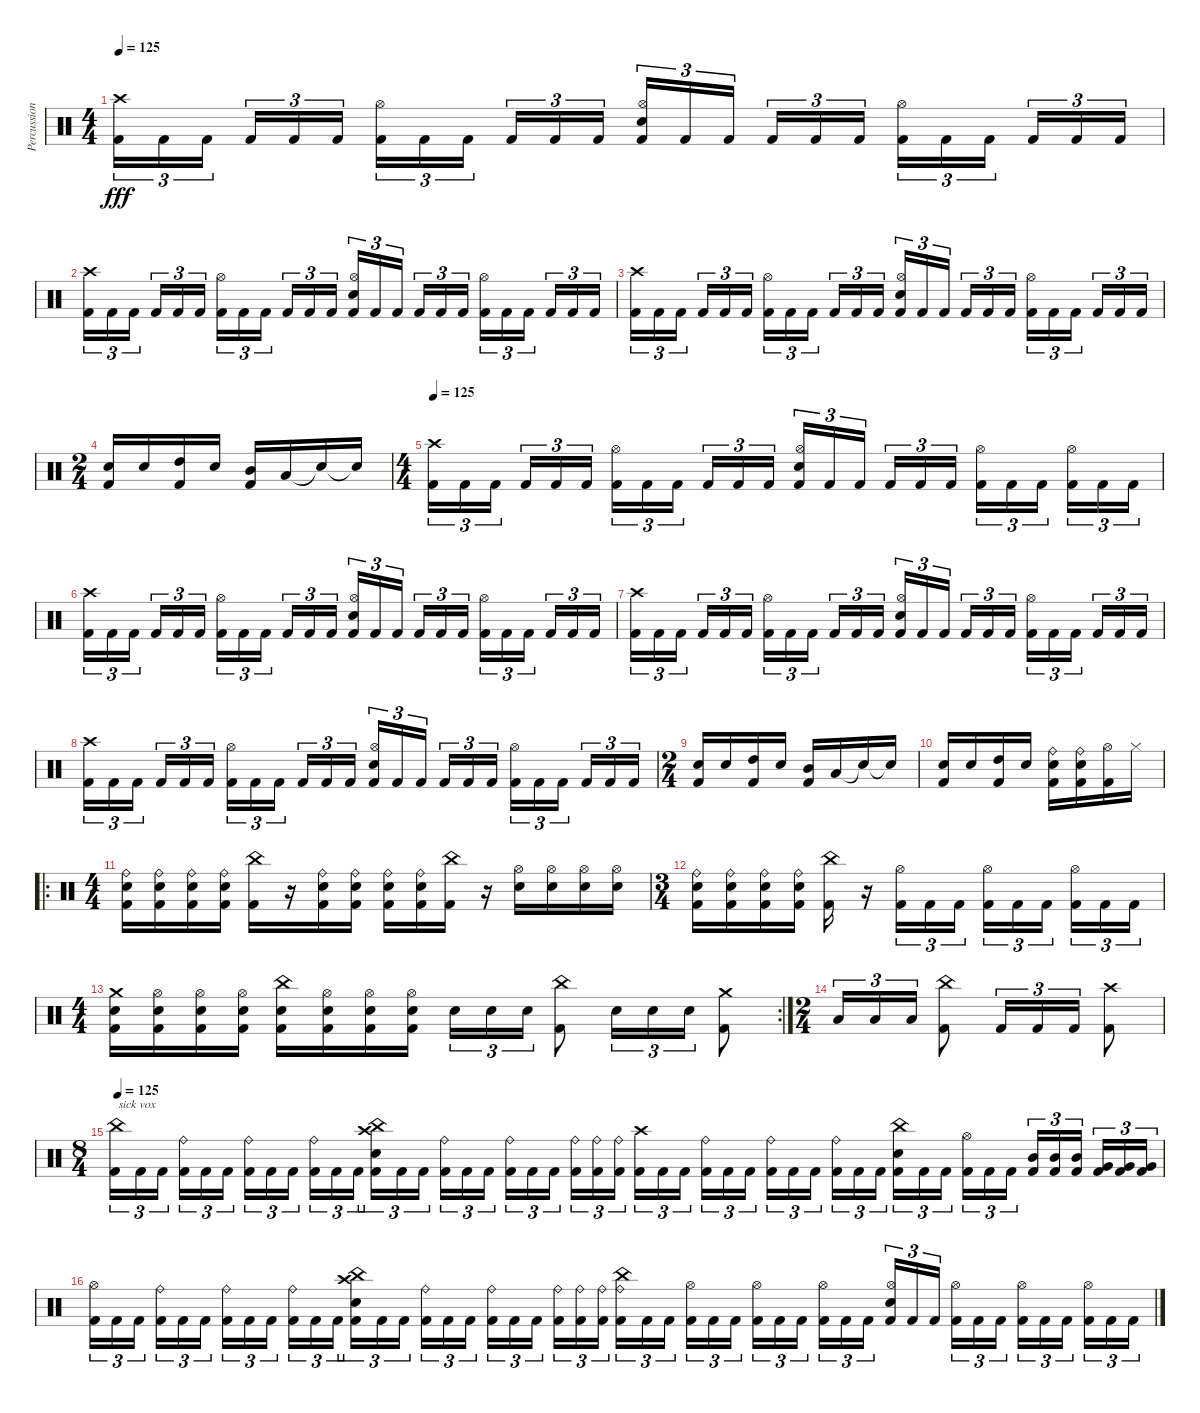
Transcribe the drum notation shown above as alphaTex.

\track ("Percussion" "Percussion") {instrument percussion}
\staff {score}
\articulation defaults
\ts (4 4)
\tempo 125
\clef neutral
\ks c
("Crash high (hit)" "Kick (hit) 2").16{tu (3 2) dy fff} "Kick (hit) 2".16{tu (3 2)} "Kick (hit) 2".16{tu (3 2) beam splitsecondary} "Kick (hit) 2".16{tu (3 2)} "Kick (hit) 2".16{tu (3 2)} "Kick (hit) 2".16{tu (3 2)} ("Hi-Hat (open)" "Kick (hit) 2").16{tu (3 2)} "Kick (hit) 2".16{tu (3 2)} "Kick (hit) 2".16{tu (3 2) beam splitsecondary} "Kick (hit) 2".16{tu (3 2)} "Kick (hit) 2".16{tu (3 2)} "Kick (hit) 2".16{tu (3 2)} ("Electric Snare (hit)" "Hi-Hat (open)" "Kick (hit) 2").16{tu (3 2)} "Kick (hit) 2".16{tu (3 2)} "Kick (hit) 2".16{tu (3 2) beam splitsecondary} "Kick (hit) 2".16{tu (3 2)} "Kick (hit) 2".16{tu (3 2)} "Kick (hit) 2".16{tu (3 2)} ("Hi-Hat (open)" "Kick (hit) 2").16{tu (3 2)} "Kick (hit) 2".16{tu (3 2)} "Kick (hit) 2".16{tu (3 2) beam splitsecondary} "Kick (hit) 2".16{tu (3 2)} "Kick (hit) 2".16{tu (3 2)} "Kick (hit) 2".16{tu (3 2)} |
("Crash high (hit)" "Kick (hit) 2").16{tu (3 2)} "Kick (hit) 2".16{tu (3 2)} "Kick (hit) 2".16{tu (3 2) beam splitsecondary} "Kick (hit) 2".16{tu (3 2)} "Kick (hit) 2".16{tu (3 2)} "Kick (hit) 2".16{tu (3 2)} ("Hi-Hat (open)" "Kick (hit) 2").16{tu (3 2)} "Kick (hit) 2".16{tu (3 2)} "Kick (hit) 2".16{tu (3 2) beam splitsecondary} "Kick (hit) 2".16{tu (3 2)} "Kick (hit) 2".16{tu (3 2)} "Kick (hit) 2".16{tu (3 2)} ("Electric Snare (hit)" "Hi-Hat (open)" "Kick (hit) 2").16{tu (3 2)} "Kick (hit) 2".16{tu (3 2)} "Kick (hit) 2".16{tu (3 2) beam splitsecondary} "Kick (hit) 2".16{tu (3 2)} "Kick (hit) 2".16{tu (3 2)} "Kick (hit) 2".16{tu (3 2)} ("Hi-Hat (open)" "Kick (hit) 2").16{tu (3 2)} "Kick (hit) 2".16{tu (3 2)} "Kick (hit) 2".16{tu (3 2) beam splitsecondary} "Kick (hit) 2".16{tu (3 2)} "Kick (hit) 2".16{tu (3 2)} "Kick (hit) 2".16{tu (3 2)} |
("Crash high (hit)" "Kick (hit) 2").16{tu (3 2)} "Kick (hit) 2".16{tu (3 2)} "Kick (hit) 2".16{tu (3 2) beam splitsecondary} "Kick (hit) 2".16{tu (3 2)} "Kick (hit) 2".16{tu (3 2)} "Kick (hit) 2".16{tu (3 2)} ("Hi-Hat (open)" "Kick (hit) 2").16{tu (3 2)} "Kick (hit) 2".16{tu (3 2)} "Kick (hit) 2".16{tu (3 2) beam splitsecondary} "Kick (hit) 2".16{tu (3 2)} "Kick (hit) 2".16{tu (3 2)} "Kick (hit) 2".16{tu (3 2)} ("Electric Snare (hit)" "Hi-Hat (open)" "Kick (hit) 2").16{tu (3 2)} "Kick (hit) 2".16{tu (3 2)} "Kick (hit) 2".16{tu (3 2) beam splitsecondary} "Kick (hit) 2".16{tu (3 2)} "Kick (hit) 2".16{tu (3 2)} "Kick (hit) 2".16{tu (3 2)} ("Hi-Hat (open)" "Kick (hit) 2").16{tu (3 2)} "Kick (hit) 2".16{tu (3 2)} "Kick (hit) 2".16{tu (3 2) beam splitsecondary} "Kick (hit) 2".16{tu (3 2)} "Kick (hit) 2".16{tu (3 2)} "Kick (hit) 2".16{tu (3 2)} |
\ts (2 4)
("Kick (hit) 2" "Electric Snare (hit)").16 "Electric Snare (hit)".16 ("Kick (hit) 2" "High Tom (hit)").16 "Electric Snare (hit)".16 ("Kick (hit) 2" "Mid Tom (hit)").16 "Low Tom (hit)".16 "Snare (hit)"{t}.16 "Snare (hit)"{t}.16 |
\ts (4 4)
\tempo 125
("Crash high (hit)" "Kick (hit) 2").16{tu (3 2)} "Kick (hit) 2".16{tu (3 2)} "Kick (hit) 2".16{tu (3 2) beam splitsecondary} "Kick (hit) 2".16{tu (3 2)} "Kick (hit) 2".16{tu (3 2)} "Kick (hit) 2".16{tu (3 2)} ("Hi-Hat (open)" "Kick (hit) 2").16{tu (3 2)} "Kick (hit) 2".16{tu (3 2)} "Kick (hit) 2".16{tu (3 2) beam splitsecondary} "Kick (hit) 2".16{tu (3 2)} "Kick (hit) 2".16{tu (3 2)} "Kick (hit) 2".16{tu (3 2)} ("Electric Snare (hit)" "Hi-Hat (open)" "Kick (hit) 2").16{tu (3 2)} "Kick (hit) 2".16{tu (3 2)} "Kick (hit) 2".16{tu (3 2) beam splitsecondary} "Kick (hit) 2".16{tu (3 2)} "Kick (hit) 2".16{tu (3 2)} "Kick (hit) 2".16{tu (3 2)} ("Hi-Hat (open)" "Kick (hit) 2").16{tu (3 2)} "Kick (hit) 2".16{tu (3 2)} "Kick (hit) 2".16{tu (3 2) beam splitsecondary} ("Hi-Hat (open)" "Kick (hit) 2").16{tu (3 2)} "Kick (hit) 2".16{tu (3 2)} "Kick (hit) 2".16{tu (3 2)} |
("Crash high (hit)" "Kick (hit) 2").16{tu (3 2)} "Kick (hit) 2".16{tu (3 2)} "Kick (hit) 2".16{tu (3 2) beam splitsecondary} "Kick (hit) 2".16{tu (3 2)} "Kick (hit) 2".16{tu (3 2)} "Kick (hit) 2".16{tu (3 2)} ("Hi-Hat (open)" "Kick (hit) 2").16{tu (3 2)} "Kick (hit) 2".16{tu (3 2)} "Kick (hit) 2".16{tu (3 2) beam splitsecondary} "Kick (hit) 2".16{tu (3 2)} "Kick (hit) 2".16{tu (3 2)} "Kick (hit) 2".16{tu (3 2)} ("Electric Snare (hit)" "Hi-Hat (open)" "Kick (hit) 2").16{tu (3 2)} "Kick (hit) 2".16{tu (3 2)} "Kick (hit) 2".16{tu (3 2) beam splitsecondary} "Kick (hit) 2".16{tu (3 2)} "Kick (hit) 2".16{tu (3 2)} "Kick (hit) 2".16{tu (3 2)} ("Hi-Hat (open)" "Kick (hit) 2").16{tu (3 2)} "Kick (hit) 2".16{tu (3 2)} "Kick (hit) 2".16{tu (3 2) beam splitsecondary} "Kick (hit) 2".16{tu (3 2)} "Kick (hit) 2".16{tu (3 2)} "Kick (hit) 2".16{tu (3 2)} |
("Crash high (hit)" "Kick (hit) 2").16{tu (3 2)} "Kick (hit) 2".16{tu (3 2)} "Kick (hit) 2".16{tu (3 2) beam splitsecondary} "Kick (hit) 2".16{tu (3 2)} "Kick (hit) 2".16{tu (3 2)} "Kick (hit) 2".16{tu (3 2)} ("Hi-Hat (open)" "Kick (hit) 2").16{tu (3 2)} "Kick (hit) 2".16{tu (3 2)} "Kick (hit) 2".16{tu (3 2) beam splitsecondary} "Kick (hit) 2".16{tu (3 2)} "Kick (hit) 2".16{tu (3 2)} "Kick (hit) 2".16{tu (3 2)} ("Electric Snare (hit)" "Hi-Hat (open)" "Kick (hit) 2").16{tu (3 2)} "Kick (hit) 2".16{tu (3 2)} "Kick (hit) 2".16{tu (3 2) beam splitsecondary} "Kick (hit) 2".16{tu (3 2)} "Kick (hit) 2".16{tu (3 2)} "Kick (hit) 2".16{tu (3 2)} ("Hi-Hat (open)" "Kick (hit) 2").16{tu (3 2)} "Kick (hit) 2".16{tu (3 2)} "Kick (hit) 2".16{tu (3 2) beam splitsecondary} "Kick (hit) 2".16{tu (3 2)} "Kick (hit) 2".16{tu (3 2)} "Kick (hit) 2".16{tu (3 2)} |
("Crash high (hit)" "Kick (hit) 2").16{tu (3 2)} "Kick (hit) 2".16{tu (3 2)} "Kick (hit) 2".16{tu (3 2) beam splitsecondary} "Kick (hit) 2".16{tu (3 2)} "Kick (hit) 2".16{tu (3 2)} "Kick (hit) 2".16{tu (3 2)} ("Hi-Hat (open)" "Kick (hit) 2").16{tu (3 2)} "Kick (hit) 2".16{tu (3 2)} "Kick (hit) 2".16{tu (3 2) beam splitsecondary} "Kick (hit) 2".16{tu (3 2)} "Kick (hit) 2".16{tu (3 2)} "Kick (hit) 2".16{tu (3 2)} ("Electric Snare (hit)" "Hi-Hat (open)" "Kick (hit) 2").16{tu (3 2)} "Kick (hit) 2".16{tu (3 2)} "Kick (hit) 2".16{tu (3 2) beam splitsecondary} "Kick (hit) 2".16{tu (3 2)} "Kick (hit) 2".16{tu (3 2)} "Kick (hit) 2".16{tu (3 2)} ("Hi-Hat (open)" "Kick (hit) 2").16{tu (3 2)} "Kick (hit) 2".16{tu (3 2)} "Kick (hit) 2".16{tu (3 2) beam splitsecondary} "Kick (hit) 2".16{tu (3 2)} "Kick (hit) 2".16{tu (3 2)} "Kick (hit) 2".16{tu (3 2)} |
\ts (2 4)
("Kick (hit) 2" "Electric Snare (hit)").16 "Electric Snare (hit)".16 ("Kick (hit) 2" "High Tom (hit)").16 "Electric Snare (hit)".16 ("Kick (hit) 2" "Mid Tom (hit)").16 "Low Tom (hit)".16 "Snare (hit)"{t}.16 "Snare (hit)"{t}.16 |
("Kick (hit) 2" "Electric Snare (hit)").16 "Electric Snare (hit)".16 ("Kick (hit) 2" "High Tom (hit)").16 "Electric Snare (hit)".16 ("Kick (hit) 2" "Electric Snare (hit)" "Ride (bell)").16 ("Kick (hit) 2" "Electric Snare (hit)" "Ride (bell)").16 ("Hi-Hat (open)" "Kick (hit) 2").16 "Hi-Hat (closed)".16 |
\ro
\ts (4 4)
("Ride (bell)" "Electric Snare (hit)" "Kick (hit) 2").16 ("Ride (bell)" "Electric Snare (hit)" "Kick (hit) 2").16 ("Ride (bell)" "Electric Snare (hit)" "Kick (hit) 2").16 ("Ride (bell)" "Electric Snare (hit)" "Kick (hit) 2").16 ("China (hit)" "Kick (hit) 2").16 r.16 ("Ride (bell)" "Electric Snare (hit)" "Kick (hit) 2").16 ("Ride (bell)" "Electric Snare (hit)" "Kick (hit) 2").16 ("Ride (bell)" "Electric Snare (hit)" "Kick (hit) 2").16 ("Ride (bell)" "Electric Snare (hit)" "Kick (hit) 2").16 ("China (hit)" "Kick (hit) 2").16 r.16 ("Hi-Hat (open)" "Electric Snare (hit)").16 ("Hi-Hat (open)" "Electric Snare (hit)").16 ("Hi-Hat (open)" "Electric Snare (hit)").16 ("Hi-Hat (open)" "Electric Snare (hit)").16 |
\ts (3 4)
("Ride (bell)" "Electric Snare (hit)" "Kick (hit) 2").16 ("Ride (bell)" "Electric Snare (hit)" "Kick (hit) 2").16 ("Ride (bell)" "Electric Snare (hit)" "Kick (hit) 2").16 ("Ride (bell)" "Electric Snare (hit)" "Kick (hit) 2").16 ("China (hit)" "Kick (hit) 2").16 r.16 ("Hi-Hat (open)" "Kick (hit) 2").16{tu (3 2)} "Kick (hit) 2".16{tu (3 2)} "Kick (hit) 2".16{tu (3 2)} ("Hi-Hat (open)" "Kick (hit) 2").16{tu (3 2)} "Kick (hit) 2".16{tu (3 2)} "Kick (hit) 2".16{tu (3 2) beam splitsecondary} ("Hi-Hat (open)" "Kick (hit) 2").16{tu (3 2)} "Kick (hit) 2".16{tu (3 2)} "Kick (hit) 2".16{tu (3 2)} |
\rc 2
\ts (4 4)
("Kick (hit) 2" "Crash medium (hit)" "Electric Snare (hit)").16 ("Kick (hit) 2" "Hi-Hat (open)" "Electric Snare (hit)").16 ("Kick (hit) 2" "Hi-Hat (open)" "Electric Snare (hit)").16 ("Kick (hit) 2" "Hi-Hat (open)" "Electric Snare (hit)").16 ("Kick (hit) 2" "China (hit)" "Electric Snare (hit)").16 ("Kick (hit) 2" "Hi-Hat (open)" "Electric Snare (hit)").16 ("Kick (hit) 2" "Hi-Hat (open)" "Electric Snare (hit)").16 ("Kick (hit) 2" "Hi-Hat (open)" "Electric Snare (hit)").16 "Electric Snare (hit)".16{tu (3 2)} "Electric Snare (hit)".16{tu (3 2)} "Electric Snare (hit)".16{tu (3 2)} ("China (hit)" "Kick (hit) 2").8 "Electric Snare (hit)".16{tu (3 2)} "Electric Snare (hit)".16{tu (3 2)} "Electric Snare (hit)".16{tu (3 2)} ("Kick (hit) 2" "Crash medium (hit)").8 |
\ts (2 4)
"Low Tom (hit)".16{tu (3 2)} "Low Tom (hit)".16{tu (3 2)} "Low Tom (hit)".16{tu (3 2)} ("Kick (hit) 2" "China (hit)").8 "Kick (hit) 2".16{tu (3 2)} "Kick (hit) 2".16{tu (3 2)} "Kick (hit) 2".16{tu (3 2)} ("Kick (hit) 2" "Crash high (hit)").8 |
\ts (8 4)
\tempo 125
("Kick (hit) 2" "China (hit)").16{tu (3 2) txt "sick vox"} "Kick (hit) 2".16{tu (3 2)} "Kick (hit) 2".16{tu (3 2) beam splitsecondary} ("Kick (hit) 2" "Ride (bell)").16{tu (3 2)} "Kick (hit) 2".16{tu (3 2)} "Kick (hit) 2".16{tu (3 2)} ("Kick (hit) 2" "Ride (bell)").16{tu (3 2)} "Kick (hit) 2".16{tu (3 2)} "Kick (hit) 2".16{tu (3 2) beam splitsecondary} ("Kick (hit) 2" "Ride (bell)").16{tu (3 2)} "Kick (hit) 2".16{tu (3 2)} "Kick (hit) 2".16{tu (3 2)} ("Kick (hit) 2" "Electric Snare (hit)" "China (hit)" "Crash high (hit)").16{tu (3 2)} "Kick (hit) 2".16{tu (3 2)} "Kick (hit) 2".16{tu (3 2) beam splitsecondary} ("Kick (hit) 2" "Ride (bell)").16{tu (3 2)} "Kick (hit) 2".16{tu (3 2)} "Kick (hit) 2".16{tu (3 2)} ("Kick (hit) 2" "Ride (bell)").16{tu (3 2)} "Kick (hit) 2".16{tu (3 2)} "Kick (hit) 2".16{tu (3 2) beam splitsecondary} ("Kick (hit) 2" "Ride (bell)").16{tu (3 2)} ("Kick (hit) 2" "Ride (bell)").16{tu (3 2)} ("Kick (hit) 2" "Ride (bell)").16{tu (3 2)} ("Kick (hit) 2" "Crash high (hit)").16{tu (3 2)} "Kick (hit) 2".16{tu (3 2)} "Kick (hit) 2".16{tu (3 2) beam splitsecondary} ("Kick (hit) 2" "Ride (bell)").16{tu (3 2)} "Kick (hit) 2".16{tu (3 2)} "Kick (hit) 2".16{tu (3 2)} ("Kick (hit) 2" "Ride (bell)").16{tu (3 2)} "Kick (hit) 2".16{tu (3 2)} "Kick (hit) 2".16{tu (3 2) beam splitsecondary} ("Kick (hit) 2" "Ride (bell)").16{tu (3 2)} "Kick (hit) 2".16{tu (3 2)} "Kick (hit) 2".16{tu (3 2)} ("Kick (hit) 2" "China (hit)" "Electric Snare (hit)").16{tu (3 2)} "Kick (hit) 2".16{tu (3 2)} "Kick (hit) 2".16{tu (3 2) beam splitsecondary} ("Kick (hit) 2" "Hi-Hat (open)").16{tu (3 2)} "Kick (hit) 2".16{tu (3 2)} "Kick (hit) 2".16{tu (3 2)} ("Kick (hit) 2" "Mid Tom (hit)").16{tu (3 2)} ("Kick (hit) 2" "Mid Tom (hit)").16{tu (3 2)} ("Kick (hit) 2" "Mid Tom (hit)").16{tu (3 2) beam splitsecondary} ("Kick (hit) 2" "Very Low Tom (hit)").16{tu (3 2)} ("Kick (hit) 2" "Very Low Tom (hit)").16{tu (3 2)} ("Kick (hit) 2" "Very Low Tom (hit)").16{tu (3 2)} |
("Kick (hit) 2" "Hi-Hat (open)").16{tu (3 2)} "Kick (hit) 2".16{tu (3 2)} "Kick (hit) 2".16{tu (3 2) beam splitsecondary} ("Kick (hit) 2" "Ride (bell)").16{tu (3 2)} "Kick (hit) 2".16{tu (3 2)} "Kick (hit) 2".16{tu (3 2)} ("Kick (hit) 2" "Ride (bell)").16{tu (3 2)} "Kick (hit) 2".16{tu (3 2)} "Kick (hit) 2".16{tu (3 2) beam splitsecondary} ("Kick (hit) 2" "Ride (bell)").16{tu (3 2)} "Kick (hit) 2".16{tu (3 2)} "Kick (hit) 2".16{tu (3 2)} ("Kick (hit) 2" "Electric Snare (hit)" "China (hit)" "Crash high (hit)").16{tu (3 2)} "Kick (hit) 2".16{tu (3 2)} "Kick (hit) 2".16{tu (3 2) beam splitsecondary} ("Kick (hit) 2" "Ride (bell)").16{tu (3 2)} "Kick (hit) 2".16{tu (3 2)} "Kick (hit) 2".16{tu (3 2)} ("Kick (hit) 2" "Ride (bell)").16{tu (3 2)} "Kick (hit) 2".16{tu (3 2)} "Kick (hit) 2".16{tu (3 2) beam splitsecondary} ("Kick (hit) 2" "Ride (bell)").16{tu (3 2)} ("Kick (hit) 2" "Ride (bell)").16{tu (3 2)} ("Kick (hit) 2" "Ride (bell)").16{tu (3 2)} ("Kick (hit) 2" "Ride (bell)" "China (hit)").16{tu (3 2)} "Kick (hit) 2".16{tu (3 2)} "Kick (hit) 2".16{tu (3 2) beam splitsecondary} ("Kick (hit) 2" "Hi-Hat (open)").16{tu (3 2)} "Kick (hit) 2".16{tu (3 2)} "Kick (hit) 2".16{tu (3 2)} ("Kick (hit) 2" "Hi-Hat (open)").16{tu (3 2)} "Kick (hit) 2".16{tu (3 2)} "Kick (hit) 2".16{tu (3 2) beam splitsecondary} ("Kick (hit) 2" "Hi-Hat (open)").16{tu (3 2)} "Kick (hit) 2".16{tu (3 2)} "Kick (hit) 2".16{tu (3 2)} ("Kick (hit) 2" "Hi-Hat (open)" "Electric Snare (hit)").16{tu (3 2)} "Kick (hit) 2".16{tu (3 2)} "Kick (hit) 2".16{tu (3 2) beam splitsecondary} ("Kick (hit) 2" "Hi-Hat (open)").16{tu (3 2)} "Kick (hit) 2".16{tu (3 2)} "Kick (hit) 2".16{tu (3 2)} ("Kick (hit) 2" "Hi-Hat (open)").16{tu (3 2)} "Kick (hit) 2".16{tu (3 2)} "Kick (hit) 2".16{tu (3 2) beam splitsecondary} ("Kick (hit) 2" "Hi-Hat (open)").16{tu (3 2)} "Kick (hit) 2".16{tu (3 2)} "Kick (hit) 2".16{tu (3 2)}
